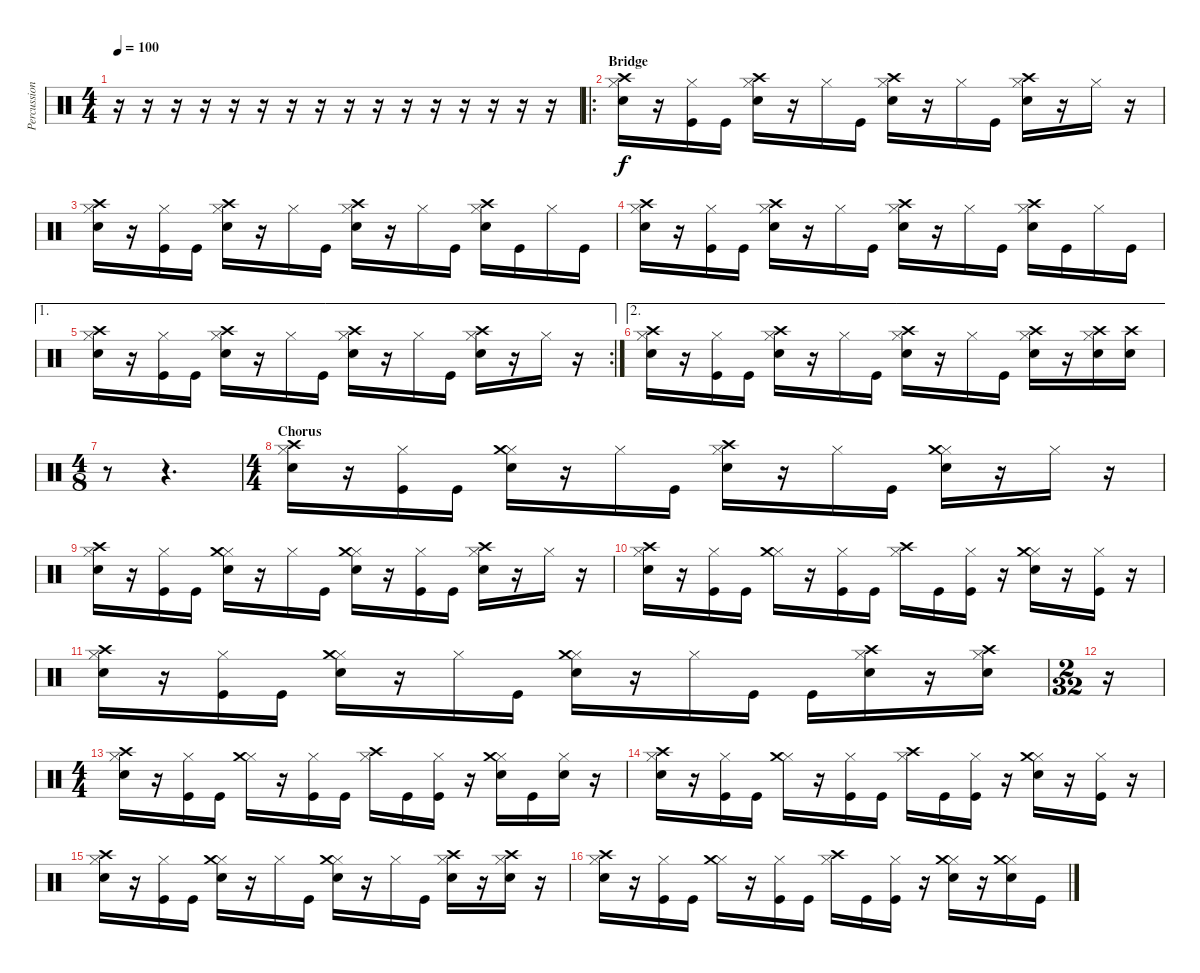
\track ("Percussion" "Percussion") {instrument percussion}
\staff {score}
\articulation defaults
\ts (4 4)
\tempo 100
\clef neutral
\ks c
r.16{dy f} r.16 r.16 r.16 r.16 r.16 r.16 r.16 r.16 r.16 r.16 r.16 r.16 r.16 r.16 r.16 |
\ro
\section ("" "Bridge")
("Hi-Hat (closed)" "Crash high (hit)" "Electric Snare (hit)").16 r.16 ("Hi-Hat (closed)" "Kick (hit)").16 "Kick (hit)".16 ("Hi-Hat (closed)" "Crash high (hit)" "Electric Snare (hit)").16 r.16 "Hi-Hat (closed)".16 "Kick (hit)".16 ("Hi-Hat (closed)" "Crash high (hit)" "Electric Snare (hit)").16 r.16 "Hi-Hat (closed)".16 "Kick (hit)".16 ("Hi-Hat (closed)" "Crash high (hit)" "Electric Snare (hit)").16 r.16 "Hi-Hat (closed)".16 r.16 |
("Hi-Hat (closed)" "Crash high (hit)" "Electric Snare (hit)").16 r.16 ("Hi-Hat (closed)" "Kick (hit)").16 "Kick (hit)".16 ("Hi-Hat (closed)" "Crash high (hit)" "Electric Snare (hit)").16 r.16 "Hi-Hat (closed)".16 "Kick (hit)".16 ("Hi-Hat (closed)" "Crash high (hit)" "Electric Snare (hit)").16 r.16 "Hi-Hat (closed)".16 "Kick (hit)".16 ("Hi-Hat (closed)" "Crash high (hit)" "Electric Snare (hit)").16 "Kick (hit)".16 "Hi-Hat (closed)".16 "Kick (hit)".16 |
("Hi-Hat (closed)" "Crash high (hit)" "Electric Snare (hit)").16 r.16 ("Hi-Hat (closed)" "Kick (hit)").16 "Kick (hit)".16 ("Hi-Hat (closed)" "Crash high (hit)" "Electric Snare (hit)").16 r.16 "Hi-Hat (closed)".16 "Kick (hit)".16 ("Hi-Hat (closed)" "Crash high (hit)" "Electric Snare (hit)").16 r.16 "Hi-Hat (closed)".16 "Kick (hit)".16 ("Hi-Hat (closed)" "Crash high (hit)" "Electric Snare (hit)").16 "Kick (hit)".16 "Hi-Hat (closed)".16 "Kick (hit)".16 |
\ae 1
\rc 2
("Hi-Hat (closed)" "Crash high (hit)" "Electric Snare (hit)").16 r.16 ("Hi-Hat (closed)" "Kick (hit)").16 "Kick (hit)".16 ("Hi-Hat (closed)" "Crash high (hit)" "Electric Snare (hit)").16 r.16 "Hi-Hat (closed)".16 "Kick (hit)".16 ("Hi-Hat (closed)" "Crash high (hit)" "Electric Snare (hit)").16 r.16 "Hi-Hat (closed)".16 "Kick (hit)".16 ("Hi-Hat (closed)" "Crash high (hit)" "Electric Snare (hit)").16 r.16 "Hi-Hat (closed)".16 r.16 |
\ae 2
("Hi-Hat (closed)" "Crash high (hit)" "Electric Snare (hit)").16 r.16 ("Hi-Hat (closed)" "Kick (hit)").16 "Kick (hit)".16 ("Hi-Hat (closed)" "Crash high (hit)" "Electric Snare (hit)").16 r.16 "Hi-Hat (closed)".16 "Kick (hit)".16 ("Hi-Hat (closed)" "Crash high (hit)" "Electric Snare (hit)").16 r.16 "Hi-Hat (closed)".16 "Kick (hit)".16 ("Hi-Hat (closed)" "Crash high (hit)" "Electric Snare (hit)").16 r.16 ("Hi-Hat (closed)" "Crash high (hit)" "Electric Snare (hit)").16 ("Crash high (hit)" "Electric Snare (hit)").16 |
\ts (4 8)
r.8 r.4{d} |
\ts (4 4)
\section ("" "Chorus")
("Hi-Hat (closed)" "Crash high (hit)" "Electric Snare (hit)").16 r.16 ("Hi-Hat (closed)" "Kick (hit)").16 "Kick (hit)".16 ("Hi-Hat (closed)" "Crash medium (hit)" "Electric Snare (hit)").16 r.16 "Hi-Hat (closed)".16 "Kick (hit)".16 ("Hi-Hat (closed)" "Crash high (hit)" "Electric Snare (hit)").16 r.16 "Hi-Hat (closed)".16 "Kick (hit)".16 ("Hi-Hat (closed)" "Crash medium (hit)" "Electric Snare (hit)").16 r.16 "Hi-Hat (closed)".16 r.16 |
("Hi-Hat (closed)" "Crash high (hit)" "Electric Snare (hit)").16 r.16 ("Hi-Hat (closed)" "Kick (hit)").16 "Kick (hit)".16 ("Hi-Hat (closed)" "Crash medium (hit)" "Electric Snare (hit)").16 r.16 "Hi-Hat (closed)".16 "Kick (hit)".16 ("Hi-Hat (closed)" "Crash medium (hit)" "Electric Snare (hit)").16 r.16 ("Hi-Hat (closed)" "Kick (hit)").16 "Kick (hit)".16 ("Hi-Hat (closed)" "Crash high (hit)" "Electric Snare (hit)").16 r.16 "Hi-Hat (closed)".16 r.16 |
("Hi-Hat (closed)" "Crash high (hit)" "Electric Snare (hit)").16 r.16 ("Hi-Hat (closed)" "Kick (hit)").16 "Kick (hit)".16 ("Hi-Hat (closed)" "Crash medium (hit)").16 r.16 ("Hi-Hat (closed)" "Kick (hit)").16 "Kick (hit)".16 ("Hi-Hat (closed)" "Crash high (hit)").16 "Kick (hit)".16 ("Hi-Hat (closed)" "Kick (hit)").16 r.16 ("Hi-Hat (closed)" "Crash medium (hit)" "Electric Snare (hit)").16 r.16 ("Hi-Hat (closed)" "Kick (hit)").16 r.16 |
("Hi-Hat (closed)" "Crash high (hit)" "Electric Snare (hit)").16 r.16 ("Hi-Hat (closed)" "Kick (hit)").16 "Kick (hit)".16 ("Hi-Hat (closed)" "Crash medium (hit)" "Electric Snare (hit)").16 r.16 "Hi-Hat (closed)".16 "Kick (hit)".16 ("Hi-Hat (closed)" "Crash medium (hit)" "Electric Snare (hit)").16 r.16 "Hi-Hat (closed)".16 "Kick (hit)".16 "Kick (hit)".16 ("Hi-Hat (closed)" "Crash high (hit)" "Electric Snare (hit)").16 r.16 ("Hi-Hat (closed)" "Crash high (hit)" "Electric Snare (hit)").16 |
\ts (2 32)
r.16 |
\ts (4 4)
("Hi-Hat (closed)" "Crash high (hit)" "Electric Snare (hit)").16 r.16 ("Hi-Hat (closed)" "Kick (hit)").16 "Kick (hit)".16 ("Hi-Hat (closed)" "Crash medium (hit)").16 r.16 ("Hi-Hat (closed)" "Kick (hit)").16 "Kick (hit)".16 ("Hi-Hat (closed)" "Crash high (hit)").16 "Kick (hit)".16 ("Hi-Hat (closed)" "Kick (hit)").16 r.16 ("Hi-Hat (closed)" "Crash medium (hit)" "Electric Snare (hit)").16 "Kick (hit)".16 ("Hi-Hat (closed)" "Electric Snare (hit)").16 r.16 |
("Hi-Hat (closed)" "Crash high (hit)" "Electric Snare (hit)").16 r.16 ("Hi-Hat (closed)" "Kick (hit)").16 "Kick (hit)".16 ("Hi-Hat (closed)" "Crash medium (hit)").16 r.16 ("Hi-Hat (closed)" "Kick (hit)").16 "Kick (hit)".16 ("Hi-Hat (closed)" "Crash high (hit)").16 "Kick (hit)".16 ("Hi-Hat (closed)" "Kick (hit)").16 r.16 ("Hi-Hat (closed)" "Crash medium (hit)" "Electric Snare (hit)").16 r.16 ("Hi-Hat (closed)" "Kick (hit)").16 r.16 |
("Hi-Hat (closed)" "Crash high (hit)" "Electric Snare (hit)").16 r.16 ("Hi-Hat (closed)" "Kick (hit)").16 "Kick (hit)".16 ("Hi-Hat (closed)" "Crash medium (hit)" "Electric Snare (hit)").16 r.16 "Hi-Hat (closed)".16 "Kick (hit)".16 ("Hi-Hat (closed)" "Crash medium (hit)" "Electric Snare (hit)").16 r.16 "Hi-Hat (closed)".16 "Kick (hit)".16 ("Hi-Hat (closed)" "Crash high (hit)" "Electric Snare (hit)").16 r.16 ("Hi-Hat (closed)" "Crash high (hit)" "Electric Snare (hit)").16 r.16 |
("Hi-Hat (closed)" "Crash high (hit)" "Electric Snare (hit)").16 r.16 ("Hi-Hat (closed)" "Kick (hit)").16 "Kick (hit)".16 ("Hi-Hat (closed)" "Crash medium (hit)").16 r.16 ("Hi-Hat (closed)" "Kick (hit)").16 "Kick (hit)".16 ("Hi-Hat (closed)" "Crash high (hit)").16 "Kick (hit)".16 ("Hi-Hat (closed)" "Kick (hit)").16 r.16 ("Hi-Hat (closed)" "Crash medium (hit)" "Electric Snare (hit)").16 r.16 ("Hi-Hat (closed)" "Crash medium (hit)" "Electric Snare (hit)").16 "Kick (hit)".16
